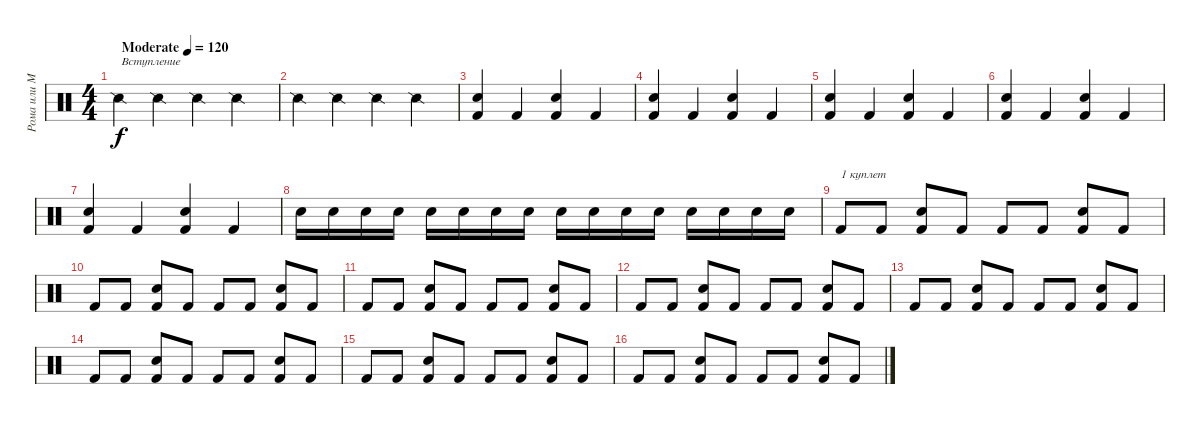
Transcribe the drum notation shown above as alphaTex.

\track ("Рома или Миша" "Рома или М") {instrument percussion}
\staff {score}
\articulation defaults
\ts (4 4)
\tempo (120 "Moderate")
\clef neutral
\ks c "Snare (side stick) 2".4{txt "Вступление" dy f} "Snare (side stick) 2".4 "Snare (side stick) 2".4 "Snare (side stick) 2".4
|
"Snare (side stick) 2".4 "Snare (side stick) 2".4 "Snare (side stick) 2".4 "Snare (side stick) 2".4 |
("Snare (hit) 2" "Kick (hit) 2").4 "Kick (hit) 2".4 ("Snare (hit) 2" "Kick (hit) 2").4 "Kick (hit) 2".4 |
("Snare (hit) 2" "Kick (hit) 2").4 "Kick (hit) 2".4 ("Snare (hit) 2" "Kick (hit) 2").4 "Kick (hit) 2".4 |
("Snare (hit) 2" "Kick (hit) 2").4 "Kick (hit) 2".4 ("Snare (hit) 2" "Kick (hit) 2").4 "Kick (hit) 2".4 |
("Snare (hit) 2" "Kick (hit) 2").4 "Kick (hit) 2".4 ("Snare (hit) 2" "Kick (hit) 2").4 "Kick (hit) 2".4 |
("Snare (hit) 2" "Kick (hit) 2").4 "Kick (hit) 2".4 ("Snare (hit) 2" "Kick (hit) 2").4 "Kick (hit) 2".4 |
"Snare (hit) 2".16 "Snare (hit) 2".16 "Snare (hit) 2".16 "Snare (hit) 2".16 "Snare (hit) 2".16 "Snare (hit) 2".16 "Snare (hit) 2".16 "Snare (hit) 2".16 "Snare (hit) 2".16 "Snare (hit) 2".16 "Snare (hit) 2".16 "Snare (hit) 2".16 "Snare (hit) 2".16 "Snare (hit) 2".16 "Snare (hit) 2".16 "Snare (hit) 2".16 |
"Kick (hit) 2".8{txt "1 куплет"} "Kick (hit) 2".8 ("Snare (hit) 2" "Kick (hit) 2").8 "Kick (hit) 2".8 "Kick (hit) 2".8 "Kick (hit) 2".8 ("Snare (hit) 2" "Kick (hit) 2").8 "Kick (hit) 2".8 |
"Kick (hit) 2".8 "Kick (hit) 2".8 ("Snare (hit) 2" "Kick (hit) 2").8 "Kick (hit) 2".8 "Kick (hit) 2".8 "Kick (hit) 2".8 ("Snare (hit) 2" "Kick (hit) 2").8 "Kick (hit) 2".8 |
"Kick (hit) 2".8 "Kick (hit) 2".8 ("Snare (hit) 2" "Kick (hit) 2").8 "Kick (hit) 2".8 "Kick (hit) 2".8 "Kick (hit) 2".8 ("Snare (hit) 2" "Kick (hit) 2").8 "Kick (hit) 2".8 |
"Kick (hit) 2".8 "Kick (hit) 2".8 ("Snare (hit) 2" "Kick (hit) 2").8 "Kick (hit) 2".8 "Kick (hit) 2".8 "Kick (hit) 2".8 ("Snare (hit) 2" "Kick (hit) 2").8 "Kick (hit) 2".8 |
"Kick (hit) 2".8 "Kick (hit) 2".8 ("Snare (hit) 2" "Kick (hit) 2").8 "Kick (hit) 2".8 "Kick (hit) 2".8 "Kick (hit) 2".8 ("Snare (hit) 2" "Kick (hit) 2").8 "Kick (hit) 2".8 |
"Kick (hit) 2".8 "Kick (hit) 2".8 ("Snare (hit) 2" "Kick (hit) 2").8 "Kick (hit) 2".8 "Kick (hit) 2".8 "Kick (hit) 2".8 ("Snare (hit) 2" "Kick (hit) 2").8 "Kick (hit) 2".8 |
"Kick (hit) 2".8 "Kick (hit) 2".8 ("Snare (hit) 2" "Kick (hit) 2").8 "Kick (hit) 2".8 "Kick (hit) 2".8 "Kick (hit) 2".8 ("Snare (hit) 2" "Kick (hit) 2").8 "Kick (hit) 2".8 |
"Kick (hit) 2".8 "Kick (hit) 2".8 ("Snare (hit) 2" "Kick (hit) 2").8 "Kick (hit) 2".8 "Kick (hit) 2".8 "Kick (hit) 2".8 ("Snare (hit) 2" "Kick (hit) 2").8 "Kick (hit) 2".8
